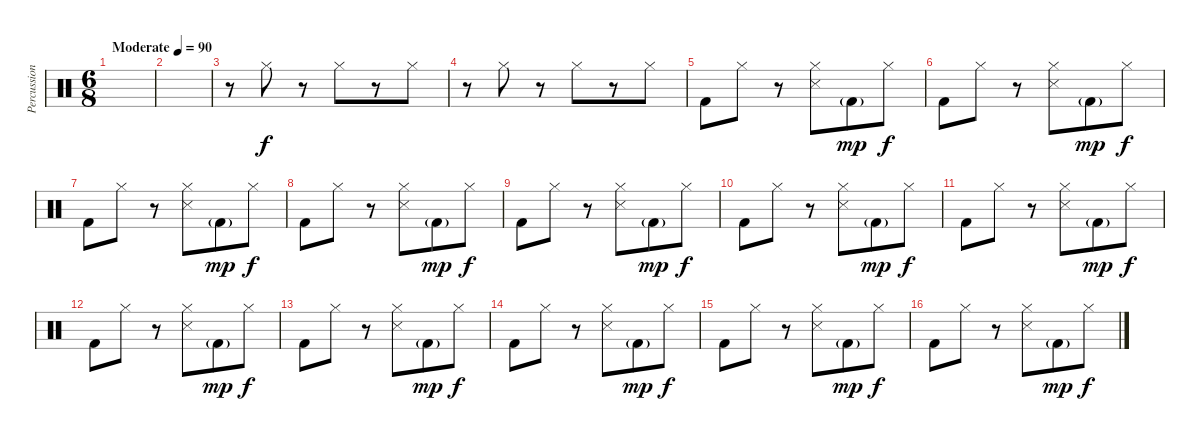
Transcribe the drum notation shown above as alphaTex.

\track ("Percussion" "Percussion") {instrument percussion}
\staff {score}
\articulation defaults
\ts (6 8)
\tempo (90 "Moderate")
\clef neutral
\ks c
|
|
r.8 "Hi-Hat (closed)".8 r.8 "Hi-Hat (closed)".8 r.8 "Hi-Hat (closed)".8 |
r.8 "Hi-Hat (closed)".8 r.8 "Hi-Hat (closed)".8 r.8 "Hi-Hat (closed)".8 |
"Kick (hit) 2".8 "Hi-Hat (closed)".8 r.8 ("Hi-Hat (closed)" "Snare (side stick) 3").8 "Kick (hit) 2"{g}.8{dy mp} "Hi-Hat (closed)".8{dy f} |
"Kick (hit) 2".8 "Hi-Hat (closed)".8 r.8 ("Hi-Hat (closed)" "Snare (side stick) 3").8 "Kick (hit) 2"{g}.8{dy mp} "Hi-Hat (closed)".8{dy f} |
"Kick (hit) 2".8 "Hi-Hat (closed)".8 r.8 ("Hi-Hat (closed)" "Snare (side stick) 3").8 "Kick (hit) 2"{g}.8{dy mp} "Hi-Hat (closed)".8{dy f} |
"Kick (hit) 2".8 "Hi-Hat (closed)".8 r.8 ("Hi-Hat (closed)" "Snare (side stick) 3").8 "Kick (hit) 2"{g}.8{dy mp} "Hi-Hat (closed)".8{dy f} |
"Kick (hit) 2".8 "Hi-Hat (closed)".8 r.8 ("Hi-Hat (closed)" "Snare (side stick) 3").8 "Kick (hit) 2"{g}.8{dy mp} "Hi-Hat (closed)".8{dy f} |
"Kick (hit) 2".8 "Hi-Hat (closed)".8 r.8 ("Hi-Hat (closed)" "Snare (side stick) 3").8 "Kick (hit) 2"{g}.8{dy mp} "Hi-Hat (closed)".8{dy f} |
"Kick (hit) 2".8 "Hi-Hat (closed)".8 r.8 ("Hi-Hat (closed)" "Snare (side stick) 3").8 "Kick (hit) 2"{g}.8{dy mp} "Hi-Hat (closed)".8{dy f} |
"Kick (hit) 2".8 "Hi-Hat (closed)".8 r.8 ("Hi-Hat (closed)" "Snare (side stick) 3").8 "Kick (hit) 2"{g}.8{dy mp} "Hi-Hat (closed)".8{dy f} |
"Kick (hit) 2".8 "Hi-Hat (closed)".8 r.8 ("Hi-Hat (closed)" "Snare (side stick) 3").8 "Kick (hit) 2"{g}.8{dy mp} "Hi-Hat (closed)".8{dy f} |
"Kick (hit) 2".8 "Hi-Hat (closed)".8 r.8 ("Hi-Hat (closed)" "Snare (side stick) 3").8 "Kick (hit) 2"{g}.8{dy mp} "Hi-Hat (closed)".8{dy f} |
"Kick (hit) 2".8 "Hi-Hat (closed)".8 r.8 ("Hi-Hat (closed)" "Snare (side stick) 3").8 "Kick (hit) 2"{g}.8{dy mp} "Hi-Hat (closed)".8{dy f} |
"Kick (hit) 2".8 "Hi-Hat (closed)".8 r.8 ("Hi-Hat (closed)" "Snare (side stick) 3").8 "Kick (hit) 2"{g}.8{dy mp} "Hi-Hat (closed)".8{dy f}
